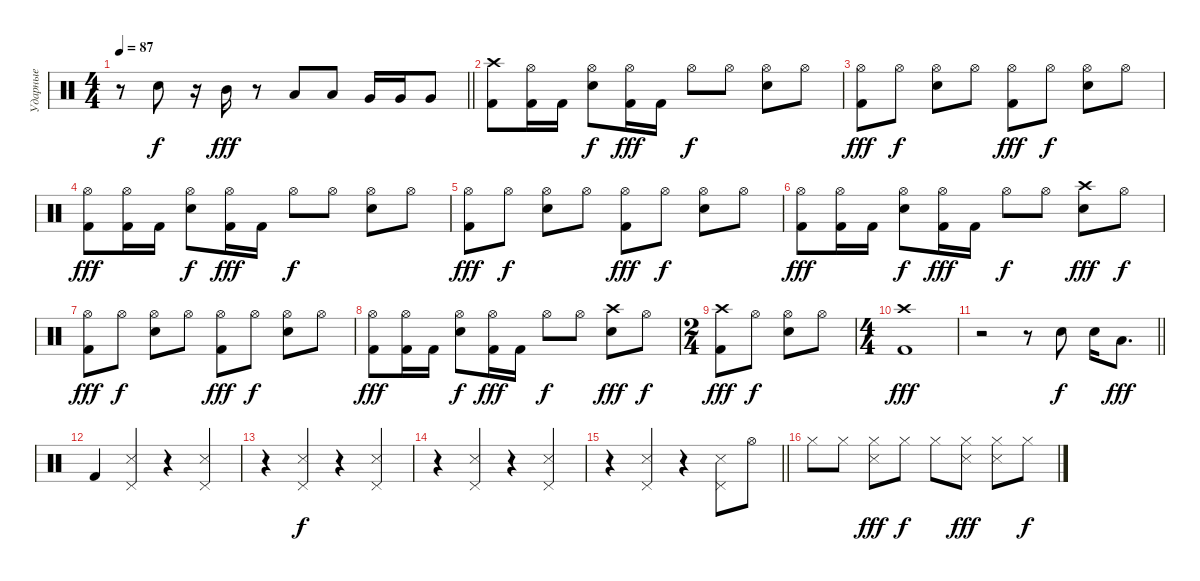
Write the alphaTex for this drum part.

\track ("Ударные" "Ударные") {instrument percussion}
\staff {score}
\articulation defaults
\ts (4 4)
\tempo 87
\clef neutral
\barLineRight lightlight
\ks c
r.8{dy f} "Snare (hit) 2".8 r.16 "Mid Tom (hit)".16{dy fff} r.8 "Low Tom (hit)".8 "Low Tom (hit)".8 "Very Low Tom (hit)".16 "Very Low Tom (hit)".16 "Very Low Tom (hit)".8 |
("Kick (hit) 2" "Crash high (hit)").8 ("Kick (hit) 2" "Hi-Hat (open)").16 "Kick (hit) 2".16 ("Snare (hit) 2" "Hi-Hat (open)").8{dy f} ("Kick (hit) 2" "Hi-Hat (open)").16{dy fff} "Kick (hit) 2".16 "Hi-Hat (open)".8{dy f} "Hi-Hat (open)".8 ("Snare (hit) 2" "Hi-Hat (open)").8 "Hi-Hat (open)".8 |
("Kick (hit) 2" "Hi-Hat (open)").8{dy fff} "Hi-Hat (open)".8{dy f} ("Snare (hit) 2" "Hi-Hat (open)").8 "Hi-Hat (open)".8 ("Kick (hit) 2" "Hi-Hat (open)").8{dy fff} "Hi-Hat (open)".8{dy f} ("Snare (hit) 2" "Hi-Hat (open)").8 "Hi-Hat (open)".8 |
("Kick (hit) 2" "Hi-Hat (open)").8{dy fff} ("Kick (hit) 2" "Hi-Hat (open)").16 "Kick (hit) 2".16 ("Snare (hit) 2" "Hi-Hat (open)").8{dy f} ("Kick (hit) 2" "Hi-Hat (open)").16{dy fff} "Kick (hit) 2".16 "Hi-Hat (open)".8{dy f} "Hi-Hat (open)".8 ("Snare (hit) 2" "Hi-Hat (open)").8 "Hi-Hat (open)".8 |
("Kick (hit) 2" "Hi-Hat (open)").8{dy fff} "Hi-Hat (open)".8{dy f} ("Snare (hit) 2" "Hi-Hat (open)").8 "Hi-Hat (open)".8 ("Kick (hit) 2" "Hi-Hat (open)").8{dy fff} "Hi-Hat (open)".8{dy f} ("Snare (hit) 2" "Hi-Hat (open)").8 "Hi-Hat (open)".8 |
("Kick (hit) 2" "Hi-Hat (open)").8{dy fff} ("Kick (hit) 2" "Hi-Hat (open)").16 "Kick (hit) 2".16 ("Snare (hit) 2" "Hi-Hat (open)").8{dy f} ("Kick (hit) 2" "Hi-Hat (open)").16{dy fff} "Kick (hit) 2".16 "Hi-Hat (open)".8{dy f} "Hi-Hat (open)".8 ("Snare (hit) 2" "Crash high (hit)").8{dy fff} "Hi-Hat (open)".8{dy f} |
("Kick (hit) 2" "Hi-Hat (open)").8{dy fff} "Hi-Hat (open)".8{dy f} ("Snare (hit) 2" "Hi-Hat (open)").8 "Hi-Hat (open)".8 ("Kick (hit) 2" "Hi-Hat (open)").8{dy fff} "Hi-Hat (open)".8{dy f} ("Snare (hit) 2" "Hi-Hat (open)").8 "Hi-Hat (open)".8 |
("Kick (hit) 2" "Hi-Hat (open)").8{dy fff} ("Kick (hit) 2" "Hi-Hat (open)").16 "Kick (hit) 2".16 ("Snare (hit) 2" "Hi-Hat (open)").8{dy f} ("Kick (hit) 2" "Hi-Hat (open)").16{dy fff} "Kick (hit) 2".16 "Hi-Hat (open)".8{dy f} "Hi-Hat (open)".8 ("Snare (hit) 2" "Crash high (hit)").8{dy fff} "Hi-Hat (open)".8{dy f} |
\ts (2 4)
("Kick (hit) 2" "Crash high (hit)").8{dy fff} "Hi-Hat (open)".8{dy f} ("Snare (hit) 2" "Hi-Hat (open)").8 "Hi-Hat (open)".8 |
\ts (4 4)
("Kick (hit) 2" "Crash high (hit)").1{dy fff} |
\barLineRight lightlight
r.2 r.8 "Snare (hit) 2".8{dy f} "Snare (hit) 2".16 "Low Tom (hit)".8{d dy fff} |
"Kick (hit) 2".4 ("Snare (side stick) 3" "Pedal Hi-Hat (hit)").4 r.4 ("Snare (side stick) 3" "Pedal Hi-Hat (hit)").4 |
r.4 ("Snare (side stick) 3" "Pedal Hi-Hat (hit)").4{dy f} r.4 ("Snare (side stick) 3" "Pedal Hi-Hat (hit)").4 |
r.4 ("Snare (side stick) 3" "Pedal Hi-Hat (hit)").4 r.4 ("Snare (side stick) 3" "Pedal Hi-Hat (hit)").4 |
\barLineRight lightlight
r.4 ("Snare (side stick) 3" "Pedal Hi-Hat (hit)").4 r.4 ("Snare (side stick) 3" "Pedal Hi-Hat (hit)").8 "Hi-Hat (open)".8 |
"Hi-Hat (closed)".8 "Hi-Hat (closed)".8 ("Snare (side stick) 3" "Hi-Hat (closed)").8{dy fff} "Hi-Hat (closed)".8{dy f} "Hi-Hat (closed)".8 ("Snare (side stick) 3" "Hi-Hat (closed)").8{dy fff} ("Snare (side stick) 3" "Hi-Hat (closed)").8 "Hi-Hat (closed)".8{dy f}
